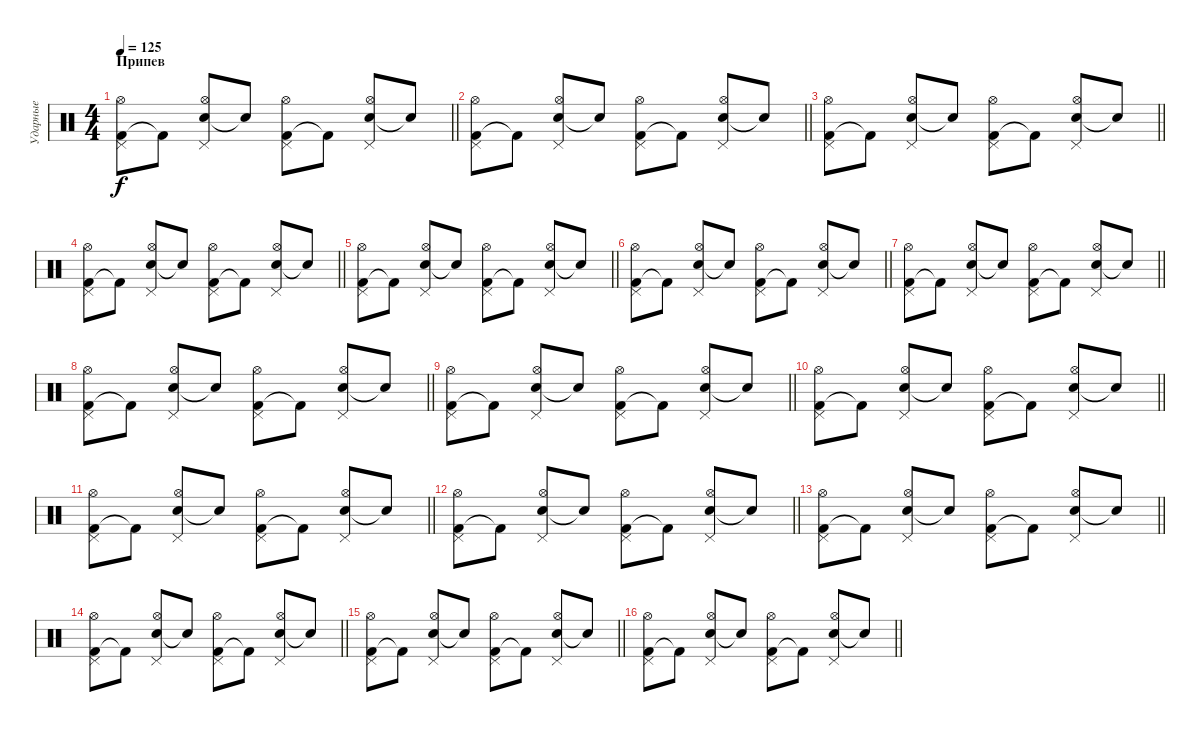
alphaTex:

\track ("Ударные" "Ударные") {instrument percussion}
\staff {score}
\articulation defaults
\ts (4 4)
\section ("" "Припев")
\tempo 125
\clef neutral
\barLineRight lightlight
\ks c
("Kick (hit) 2" "Pedal Hi-Hat (hit)" "Hi-Hat (open)").8{dy f} "Kick (hit) 2"{t}.8 ("Electric Snare (hit)" "Pedal Hi-Hat (hit)" "Hi-Hat (open)").8 "Electric Snare (hit)"{t}.8 ("Kick (hit) 2" "Pedal Hi-Hat (hit)" "Hi-Hat (open)").8 "Kick (hit) 2"{t}.8 ("Electric Snare (hit)" "Pedal Hi-Hat (hit)" "Hi-Hat (open)").8 "Electric Snare (hit)"{t}.8 |
\barLineRight lightlight
("Kick (hit) 2" "Pedal Hi-Hat (hit)" "Hi-Hat (open)").8 "Kick (hit) 2"{t}.8 ("Electric Snare (hit)" "Pedal Hi-Hat (hit)" "Hi-Hat (open)").8 "Electric Snare (hit)"{t}.8 ("Kick (hit) 2" "Pedal Hi-Hat (hit)" "Hi-Hat (open)").8 "Kick (hit) 2"{t}.8 ("Electric Snare (hit)" "Pedal Hi-Hat (hit)" "Hi-Hat (open)").8 "Electric Snare (hit)"{t}.8 |
\barLineRight lightlight
("Kick (hit) 2" "Pedal Hi-Hat (hit)" "Hi-Hat (open)").8 "Kick (hit) 2"{t}.8 ("Electric Snare (hit)" "Pedal Hi-Hat (hit)" "Hi-Hat (open)").8 "Electric Snare (hit)"{t}.8 ("Kick (hit) 2" "Pedal Hi-Hat (hit)" "Hi-Hat (open)").8 "Kick (hit) 2"{t}.8 ("Electric Snare (hit)" "Pedal Hi-Hat (hit)" "Hi-Hat (open)").8 "Electric Snare (hit)"{t}.8 |
\barLineRight lightlight
("Kick (hit) 2" "Pedal Hi-Hat (hit)" "Hi-Hat (open)").8 "Kick (hit) 2"{t}.8 ("Electric Snare (hit)" "Pedal Hi-Hat (hit)" "Hi-Hat (open)").8 "Electric Snare (hit)"{t}.8 ("Kick (hit) 2" "Pedal Hi-Hat (hit)" "Hi-Hat (open)").8 "Kick (hit) 2"{t}.8 ("Electric Snare (hit)" "Pedal Hi-Hat (hit)" "Hi-Hat (open)").8 "Electric Snare (hit)"{t}.8 |
\barLineRight lightlight
("Kick (hit) 2" "Pedal Hi-Hat (hit)" "Hi-Hat (open)").8 "Kick (hit) 2"{t}.8 ("Electric Snare (hit)" "Pedal Hi-Hat (hit)" "Hi-Hat (open)").8 "Electric Snare (hit)"{t}.8 ("Kick (hit) 2" "Pedal Hi-Hat (hit)" "Hi-Hat (open)").8 "Kick (hit) 2"{t}.8 ("Electric Snare (hit)" "Pedal Hi-Hat (hit)" "Hi-Hat (open)").8 "Electric Snare (hit)"{t}.8 |
\barLineRight lightlight
("Kick (hit) 2" "Pedal Hi-Hat (hit)" "Hi-Hat (open)").8 "Kick (hit) 2"{t}.8 ("Electric Snare (hit)" "Pedal Hi-Hat (hit)" "Hi-Hat (open)").8 "Electric Snare (hit)"{t}.8 ("Kick (hit) 2" "Pedal Hi-Hat (hit)" "Hi-Hat (open)").8 "Kick (hit) 2"{t}.8 ("Electric Snare (hit)" "Pedal Hi-Hat (hit)" "Hi-Hat (open)").8 "Electric Snare (hit)"{t}.8 |
\barLineRight lightlight
("Kick (hit) 2" "Pedal Hi-Hat (hit)" "Hi-Hat (open)").8 "Kick (hit) 2"{t}.8 ("Electric Snare (hit)" "Pedal Hi-Hat (hit)" "Hi-Hat (open)").8 "Electric Snare (hit)"{t}.8 ("Kick (hit) 2" "Pedal Hi-Hat (hit)" "Hi-Hat (open)").8 "Kick (hit) 2"{t}.8 ("Electric Snare (hit)" "Pedal Hi-Hat (hit)" "Hi-Hat (open)").8 "Electric Snare (hit)"{t}.8 |
\barLineRight lightlight
("Kick (hit) 2" "Pedal Hi-Hat (hit)" "Hi-Hat (open)").8 "Kick (hit) 2"{t}.8 ("Electric Snare (hit)" "Pedal Hi-Hat (hit)" "Hi-Hat (open)").8 "Electric Snare (hit)"{t}.8 ("Kick (hit) 2" "Pedal Hi-Hat (hit)" "Hi-Hat (open)").8 "Kick (hit) 2"{t}.8 ("Electric Snare (hit)" "Pedal Hi-Hat (hit)" "Hi-Hat (open)").8 "Electric Snare (hit)"{t}.8 |
\barLineRight lightlight
("Kick (hit) 2" "Pedal Hi-Hat (hit)" "Hi-Hat (open)").8 "Kick (hit) 2"{t}.8 ("Electric Snare (hit)" "Pedal Hi-Hat (hit)" "Hi-Hat (open)").8 "Electric Snare (hit)"{t}.8 ("Kick (hit) 2" "Pedal Hi-Hat (hit)" "Hi-Hat (open)").8 "Kick (hit) 2"{t}.8 ("Electric Snare (hit)" "Pedal Hi-Hat (hit)" "Hi-Hat (open)").8 "Electric Snare (hit)"{t}.8 |
\barLineRight lightlight
("Kick (hit) 2" "Pedal Hi-Hat (hit)" "Hi-Hat (open)").8 "Kick (hit) 2"{t}.8 ("Electric Snare (hit)" "Pedal Hi-Hat (hit)" "Hi-Hat (open)").8 "Electric Snare (hit)"{t}.8 ("Kick (hit) 2" "Pedal Hi-Hat (hit)" "Hi-Hat (open)").8 "Kick (hit) 2"{t}.8 ("Electric Snare (hit)" "Pedal Hi-Hat (hit)" "Hi-Hat (open)").8 "Electric Snare (hit)"{t}.8 |
\barLineRight lightlight
("Kick (hit) 2" "Pedal Hi-Hat (hit)" "Hi-Hat (open)").8 "Kick (hit) 2"{t}.8 ("Electric Snare (hit)" "Pedal Hi-Hat (hit)" "Hi-Hat (open)").8 "Electric Snare (hit)"{t}.8 ("Kick (hit) 2" "Pedal Hi-Hat (hit)" "Hi-Hat (open)").8 "Kick (hit) 2"{t}.8 ("Electric Snare (hit)" "Pedal Hi-Hat (hit)" "Hi-Hat (open)").8 "Electric Snare (hit)"{t}.8 |
\barLineRight lightlight
("Kick (hit) 2" "Pedal Hi-Hat (hit)" "Hi-Hat (open)").8 "Kick (hit) 2"{t}.8 ("Electric Snare (hit)" "Pedal Hi-Hat (hit)" "Hi-Hat (open)").8 "Electric Snare (hit)"{t}.8 ("Kick (hit) 2" "Pedal Hi-Hat (hit)" "Hi-Hat (open)").8 "Kick (hit) 2"{t}.8 ("Electric Snare (hit)" "Pedal Hi-Hat (hit)" "Hi-Hat (open)").8 "Electric Snare (hit)"{t}.8 |
\barLineRight lightlight
("Kick (hit) 2" "Pedal Hi-Hat (hit)" "Hi-Hat (open)").8 "Kick (hit) 2"{t}.8 ("Electric Snare (hit)" "Pedal Hi-Hat (hit)" "Hi-Hat (open)").8 "Electric Snare (hit)"{t}.8 ("Kick (hit) 2" "Pedal Hi-Hat (hit)" "Hi-Hat (open)").8 "Kick (hit) 2"{t}.8 ("Electric Snare (hit)" "Pedal Hi-Hat (hit)" "Hi-Hat (open)").8 "Electric Snare (hit)"{t}.8 |
\barLineRight lightlight
("Kick (hit) 2" "Pedal Hi-Hat (hit)" "Hi-Hat (open)").8 "Kick (hit) 2"{t}.8 ("Electric Snare (hit)" "Pedal Hi-Hat (hit)" "Hi-Hat (open)").8 "Electric Snare (hit)"{t}.8 ("Kick (hit) 2" "Pedal Hi-Hat (hit)" "Hi-Hat (open)").8 "Kick (hit) 2"{t}.8 ("Electric Snare (hit)" "Pedal Hi-Hat (hit)" "Hi-Hat (open)").8 "Electric Snare (hit)"{t}.8 |
\barLineRight lightlight
("Kick (hit) 2" "Pedal Hi-Hat (hit)" "Hi-Hat (open)").8 "Kick (hit) 2"{t}.8 ("Electric Snare (hit)" "Pedal Hi-Hat (hit)" "Hi-Hat (open)").8 "Electric Snare (hit)"{t}.8 ("Kick (hit) 2" "Pedal Hi-Hat (hit)" "Hi-Hat (open)").8 "Kick (hit) 2"{t}.8 ("Electric Snare (hit)" "Pedal Hi-Hat (hit)" "Hi-Hat (open)").8 "Electric Snare (hit)"{t}.8 |
\barLineRight lightlight
("Kick (hit) 2" "Pedal Hi-Hat (hit)" "Hi-Hat (open)").8 "Kick (hit) 2"{t}.8 ("Electric Snare (hit)" "Pedal Hi-Hat (hit)" "Hi-Hat (open)").8 "Electric Snare (hit)"{t}.8 ("Kick (hit) 2" "Pedal Hi-Hat (hit)" "Hi-Hat (open)").8 "Kick (hit) 2"{t}.8 ("Electric Snare (hit)" "Pedal Hi-Hat (hit)" "Hi-Hat (open)").8 "Electric Snare (hit)"{t}.8
